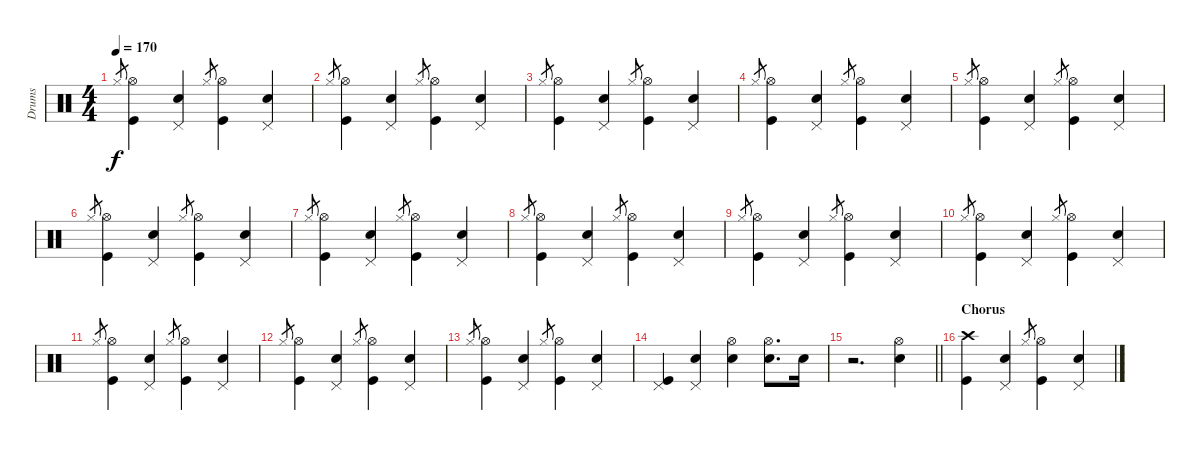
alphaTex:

\track ("Drums" "Drums") {instrument percussion}
\staff {score}
\articulation defaults
\ts (4 4)
\tempo 170
\clef neutral
\ks aminor "Hi-Hat (closed)".8{gr dy f}
("Kick (hit)" "Hi-Hat (open)").4 ("Electric Snare (hit)" "Pedal Hi-Hat (hit)").4 "Hi-Hat (closed)".8{gr} ("Kick (hit)" "Hi-Hat (open)").4 ("Electric Snare (hit)" "Pedal Hi-Hat (hit)").4 |
"Hi-Hat (closed)".8{gr} ("Kick (hit)" "Hi-Hat (open)").4 ("Electric Snare (hit)" "Pedal Hi-Hat (hit)").4 "Hi-Hat (closed)".8{gr} ("Kick (hit)" "Hi-Hat (open)").4 ("Electric Snare (hit)" "Pedal Hi-Hat (hit)").4 |
"Hi-Hat (closed)".8{gr} ("Kick (hit)" "Hi-Hat (open)").4 ("Electric Snare (hit)" "Pedal Hi-Hat (hit)").4 "Hi-Hat (closed)".8{gr} ("Kick (hit)" "Hi-Hat (open)").4 ("Electric Snare (hit)" "Pedal Hi-Hat (hit)").4 |
"Hi-Hat (closed)".8{gr} ("Kick (hit)" "Hi-Hat (open)").4 ("Electric Snare (hit)" "Pedal Hi-Hat (hit)").4 "Hi-Hat (closed)".8{gr} ("Kick (hit)" "Hi-Hat (open)").4 ("Electric Snare (hit)" "Pedal Hi-Hat (hit)").4 |
"Hi-Hat (closed)".8{gr} ("Kick (hit)" "Hi-Hat (open)").4 ("Electric Snare (hit)" "Pedal Hi-Hat (hit)").4 "Hi-Hat (closed)".8{gr} ("Kick (hit)" "Hi-Hat (open)").4 ("Electric Snare (hit)" "Pedal Hi-Hat (hit)").4 |
"Hi-Hat (closed)".8{gr} ("Kick (hit)" "Hi-Hat (open)").4 ("Electric Snare (hit)" "Pedal Hi-Hat (hit)").4 "Hi-Hat (closed)".8{gr} ("Kick (hit)" "Hi-Hat (open)").4 ("Electric Snare (hit)" "Pedal Hi-Hat (hit)").4 |
"Hi-Hat (closed)".8{gr} ("Kick (hit)" "Hi-Hat (open)").4 ("Electric Snare (hit)" "Pedal Hi-Hat (hit)").4 "Hi-Hat (closed)".8{gr} ("Kick (hit)" "Hi-Hat (open)").4 ("Electric Snare (hit)" "Pedal Hi-Hat (hit)").4 |
"Hi-Hat (closed)".8{gr} ("Kick (hit)" "Hi-Hat (open)").4 ("Electric Snare (hit)" "Pedal Hi-Hat (hit)").4 "Hi-Hat (closed)".8{gr} ("Kick (hit)" "Hi-Hat (open)").4 ("Electric Snare (hit)" "Pedal Hi-Hat (hit)").4 |
"Hi-Hat (closed)".8{gr} ("Kick (hit)" "Hi-Hat (open)").4 ("Electric Snare (hit)" "Pedal Hi-Hat (hit)").4 "Hi-Hat (closed)".8{gr} ("Kick (hit)" "Hi-Hat (open)").4 ("Electric Snare (hit)" "Pedal Hi-Hat (hit)").4 |
"Hi-Hat (closed)".8{gr} ("Kick (hit)" "Hi-Hat (open)").4 ("Electric Snare (hit)" "Pedal Hi-Hat (hit)").4 "Hi-Hat (closed)".8{gr} ("Kick (hit)" "Hi-Hat (open)").4 ("Electric Snare (hit)" "Pedal Hi-Hat (hit)").4 |
"Hi-Hat (closed)".8{gr} ("Kick (hit)" "Hi-Hat (open)").4 ("Electric Snare (hit)" "Pedal Hi-Hat (hit)").4 "Hi-Hat (closed)".8{gr} ("Kick (hit)" "Hi-Hat (open)").4 ("Electric Snare (hit)" "Pedal Hi-Hat (hit)").4 |
"Hi-Hat (closed)".8{gr} ("Kick (hit)" "Hi-Hat (open)").4 ("Electric Snare (hit)" "Pedal Hi-Hat (hit)").4 "Hi-Hat (closed)".8{gr} ("Kick (hit)" "Hi-Hat (open)").4 ("Electric Snare (hit)" "Pedal Hi-Hat (hit)").4 |
"Hi-Hat (closed)".8{gr} ("Kick (hit)" "Hi-Hat (open)").4 ("Electric Snare (hit)" "Pedal Hi-Hat (hit)").4 "Hi-Hat (closed)".8{gr} ("Kick (hit)" "Hi-Hat (open)").4 ("Electric Snare (hit)" "Pedal Hi-Hat (hit)").4 |
("Kick (hit)" "Pedal Hi-Hat (hit)").4 ("Electric Snare (hit)" "Pedal Hi-Hat (hit)").4 ("Hi-Hat (open)" "Electric Snare (hit)").4 ("Hi-Hat (open)" "Electric Snare (hit)").8{d} "Electric Snare (hit)".16 |
\barLineRight lightlight
r.2{d} ("Hi-Hat (open)" "Electric Snare (hit)").4 |
\section ("" "Chorus")
("Kick (hit)" "Crash high (hit)").4 ("Electric Snare (hit)" "Pedal Hi-Hat (hit)").4 "Hi-Hat (closed)".8{gr} ("Kick (hit)" "Hi-Hat (open)").4 ("Electric Snare (hit)" "Pedal Hi-Hat (hit)").4
